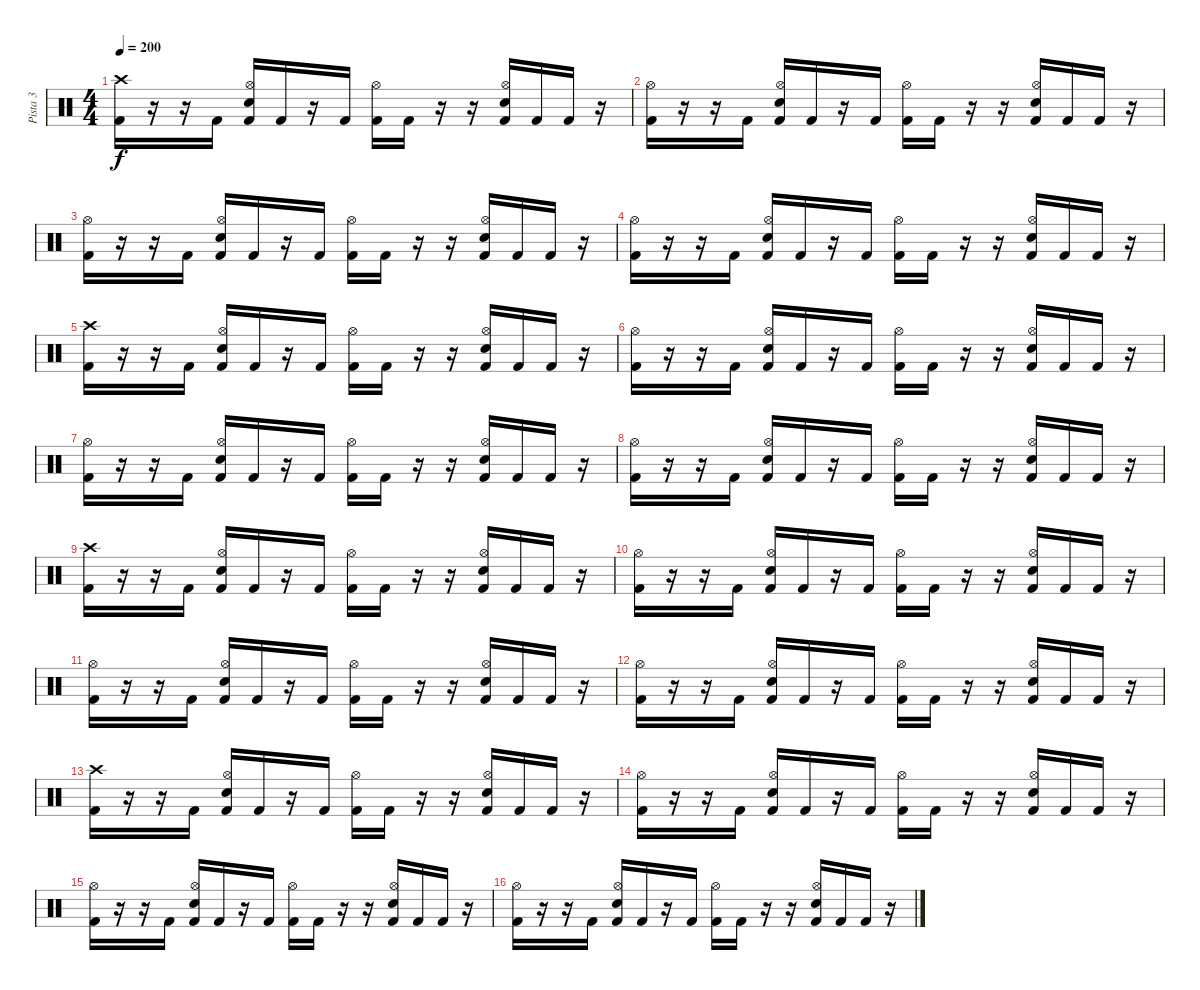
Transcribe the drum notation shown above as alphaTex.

\track ("Pista 3" "Pista 3") {instrument percussion}
\staff {score}
\articulation defaults
\ts (4 4)
\tempo 200
\clef neutral
\ks c
("Crash high (hit)" "Kick (hit) 2").16{dy f} r.16 r.16 "Kick (hit) 2".16 ("Hi-Hat (open)" "Electric Snare (hit)" "Kick (hit) 2").16 "Kick (hit) 2".16 r.16 "Kick (hit) 2".16 ("Hi-Hat (open)" "Kick (hit) 2").16 "Kick (hit) 2".16 r.16 r.16 ("Hi-Hat (open)" "Electric Snare (hit)" "Kick (hit) 2").16 "Kick (hit) 2".16 "Kick (hit) 2".16 r.16 |
("Hi-Hat (open)" "Kick (hit) 2").16 r.16 r.16 "Kick (hit) 2".16 ("Hi-Hat (open)" "Electric Snare (hit)" "Kick (hit) 2").16 "Kick (hit) 2".16 r.16 "Kick (hit) 2".16 ("Hi-Hat (open)" "Kick (hit) 2").16 "Kick (hit) 2".16 r.16 r.16 ("Hi-Hat (open)" "Electric Snare (hit)" "Kick (hit) 2").16 "Kick (hit) 2".16 "Kick (hit) 2".16 r.16 |
("Hi-Hat (open)" "Kick (hit) 2").16 r.16 r.16 "Kick (hit) 2".16 ("Hi-Hat (open)" "Electric Snare (hit)" "Kick (hit) 2").16 "Kick (hit) 2".16 r.16 "Kick (hit) 2".16 ("Hi-Hat (open)" "Kick (hit) 2").16 "Kick (hit) 2".16 r.16 r.16 ("Hi-Hat (open)" "Electric Snare (hit)" "Kick (hit) 2").16 "Kick (hit) 2".16 "Kick (hit) 2".16 r.16 |
("Hi-Hat (open)" "Kick (hit) 2").16 r.16 r.16 "Kick (hit) 2".16 ("Hi-Hat (open)" "Electric Snare (hit)" "Kick (hit) 2").16 "Kick (hit) 2".16 r.16 "Kick (hit) 2".16 ("Hi-Hat (open)" "Kick (hit) 2").16 "Kick (hit) 2".16 r.16 r.16 ("Hi-Hat (open)" "Electric Snare (hit)" "Kick (hit) 2").16 "Kick (hit) 2".16 "Kick (hit) 2".16 r.16 |
("Crash high (hit)" "Kick (hit) 2").16 r.16 r.16 "Kick (hit) 2".16 ("Hi-Hat (open)" "Electric Snare (hit)" "Kick (hit) 2").16 "Kick (hit) 2".16 r.16 "Kick (hit) 2".16 ("Hi-Hat (open)" "Kick (hit) 2").16 "Kick (hit) 2".16 r.16 r.16 ("Hi-Hat (open)" "Electric Snare (hit)" "Kick (hit) 2").16 "Kick (hit) 2".16 "Kick (hit) 2".16 r.16 |
("Hi-Hat (open)" "Kick (hit) 2").16 r.16 r.16 "Kick (hit) 2".16 ("Hi-Hat (open)" "Electric Snare (hit)" "Kick (hit) 2").16 "Kick (hit) 2".16 r.16 "Kick (hit) 2".16 ("Hi-Hat (open)" "Kick (hit) 2").16 "Kick (hit) 2".16 r.16 r.16 ("Hi-Hat (open)" "Electric Snare (hit)" "Kick (hit) 2").16 "Kick (hit) 2".16 "Kick (hit) 2".16 r.16 |
("Hi-Hat (open)" "Kick (hit) 2").16 r.16 r.16 "Kick (hit) 2".16 ("Hi-Hat (open)" "Electric Snare (hit)" "Kick (hit) 2").16 "Kick (hit) 2".16 r.16 "Kick (hit) 2".16 ("Hi-Hat (open)" "Kick (hit) 2").16 "Kick (hit) 2".16 r.16 r.16 ("Hi-Hat (open)" "Electric Snare (hit)" "Kick (hit) 2").16 "Kick (hit) 2".16 "Kick (hit) 2".16 r.16 |
("Hi-Hat (open)" "Kick (hit) 2").16 r.16 r.16 "Kick (hit) 2".16 ("Hi-Hat (open)" "Electric Snare (hit)" "Kick (hit) 2").16 "Kick (hit) 2".16 r.16 "Kick (hit) 2".16 ("Hi-Hat (open)" "Kick (hit) 2").16 "Kick (hit) 2".16 r.16 r.16 ("Hi-Hat (open)" "Electric Snare (hit)" "Kick (hit) 2").16 "Kick (hit) 2".16 "Kick (hit) 2".16 r.16 |
("Crash high (hit)" "Kick (hit) 2").16 r.16 r.16 "Kick (hit) 2".16 ("Hi-Hat (open)" "Electric Snare (hit)" "Kick (hit) 2").16 "Kick (hit) 2".16 r.16 "Kick (hit) 2".16 ("Hi-Hat (open)" "Kick (hit) 2").16 "Kick (hit) 2".16 r.16 r.16 ("Hi-Hat (open)" "Electric Snare (hit)" "Kick (hit) 2").16 "Kick (hit) 2".16 "Kick (hit) 2".16 r.16 |
("Hi-Hat (open)" "Kick (hit) 2").16 r.16 r.16 "Kick (hit) 2".16 ("Hi-Hat (open)" "Electric Snare (hit)" "Kick (hit) 2").16 "Kick (hit) 2".16 r.16 "Kick (hit) 2".16 ("Hi-Hat (open)" "Kick (hit) 2").16 "Kick (hit) 2".16 r.16 r.16 ("Hi-Hat (open)" "Electric Snare (hit)" "Kick (hit) 2").16 "Kick (hit) 2".16 "Kick (hit) 2".16 r.16 |
("Hi-Hat (open)" "Kick (hit) 2").16 r.16 r.16 "Kick (hit) 2".16 ("Hi-Hat (open)" "Electric Snare (hit)" "Kick (hit) 2").16 "Kick (hit) 2".16 r.16 "Kick (hit) 2".16 ("Hi-Hat (open)" "Kick (hit) 2").16 "Kick (hit) 2".16 r.16 r.16 ("Hi-Hat (open)" "Electric Snare (hit)" "Kick (hit) 2").16 "Kick (hit) 2".16 "Kick (hit) 2".16 r.16 |
("Hi-Hat (open)" "Kick (hit) 2").16 r.16 r.16 "Kick (hit) 2".16 ("Hi-Hat (open)" "Electric Snare (hit)" "Kick (hit) 2").16 "Kick (hit) 2".16 r.16 "Kick (hit) 2".16 ("Hi-Hat (open)" "Kick (hit) 2").16 "Kick (hit) 2".16 r.16 r.16 ("Hi-Hat (open)" "Electric Snare (hit)" "Kick (hit) 2").16 "Kick (hit) 2".16 "Kick (hit) 2".16 r.16 |
("Crash high (hit)" "Kick (hit) 2").16 r.16 r.16 "Kick (hit) 2".16 ("Hi-Hat (open)" "Electric Snare (hit)" "Kick (hit) 2").16 "Kick (hit) 2".16 r.16 "Kick (hit) 2".16 ("Hi-Hat (open)" "Kick (hit) 2").16 "Kick (hit) 2".16 r.16 r.16 ("Hi-Hat (open)" "Electric Snare (hit)" "Kick (hit) 2").16 "Kick (hit) 2".16 "Kick (hit) 2".16 r.16 |
("Hi-Hat (open)" "Kick (hit) 2").16 r.16 r.16 "Kick (hit) 2".16 ("Hi-Hat (open)" "Electric Snare (hit)" "Kick (hit) 2").16 "Kick (hit) 2".16 r.16 "Kick (hit) 2".16 ("Hi-Hat (open)" "Kick (hit) 2").16 "Kick (hit) 2".16 r.16 r.16 ("Hi-Hat (open)" "Electric Snare (hit)" "Kick (hit) 2").16 "Kick (hit) 2".16 "Kick (hit) 2".16 r.16 |
("Hi-Hat (open)" "Kick (hit) 2").16 r.16 r.16 "Kick (hit) 2".16 ("Hi-Hat (open)" "Electric Snare (hit)" "Kick (hit) 2").16 "Kick (hit) 2".16 r.16 "Kick (hit) 2".16 ("Hi-Hat (open)" "Kick (hit) 2").16 "Kick (hit) 2".16 r.16 r.16 ("Hi-Hat (open)" "Electric Snare (hit)" "Kick (hit) 2").16 "Kick (hit) 2".16 "Kick (hit) 2".16 r.16 |
("Hi-Hat (open)" "Kick (hit) 2").16 r.16 r.16 "Kick (hit) 2".16 ("Hi-Hat (open)" "Electric Snare (hit)" "Kick (hit) 2").16 "Kick (hit) 2".16 r.16 "Kick (hit) 2".16 ("Hi-Hat (open)" "Kick (hit) 2").16 "Kick (hit) 2".16 r.16 r.16 ("Hi-Hat (open)" "Electric Snare (hit)" "Kick (hit) 2").16 "Kick (hit) 2".16 "Kick (hit) 2".16 r.16
